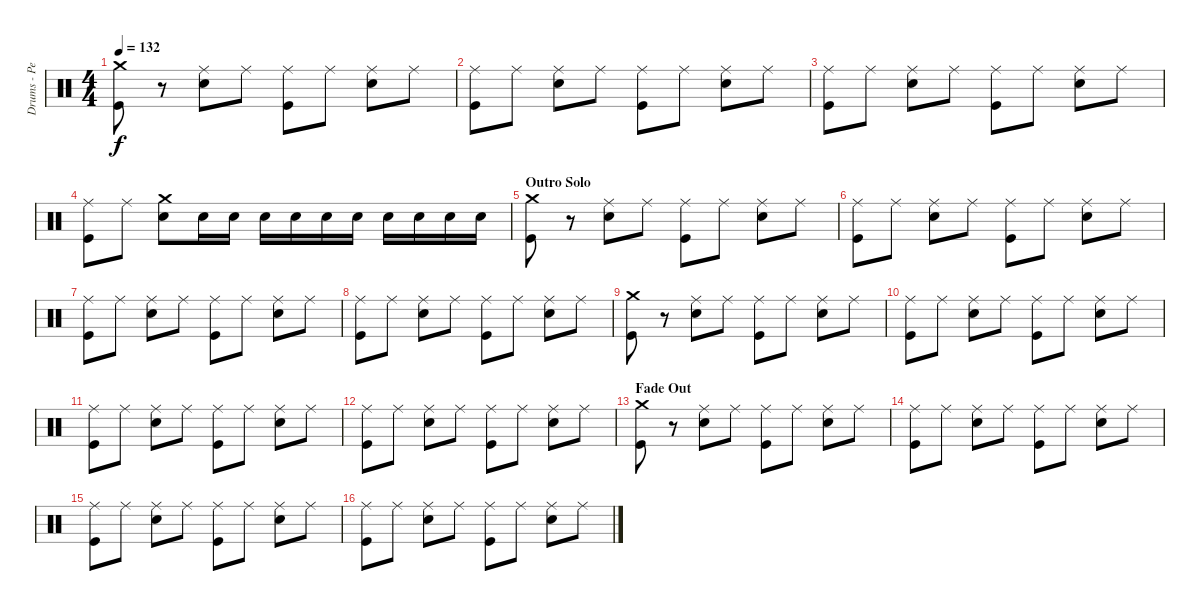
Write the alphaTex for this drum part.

\track ("Drums - Pete Gill" "Drums - Pe") {instrument percussion}
\staff {score}
\articulation defaults
\ts (4 4)
\tempo 132
\clef neutral
\ks c
("Crash medium (hit)" "Kick (hit)").8{dy f} r.8 ("Ride (middle)" "Snare (hit) 2").8 "Ride (middle)".8 ("Ride (middle)" "Kick (hit)").8 "Ride (middle)".8 ("Ride (middle)" "Snare (hit) 2").8 "Ride (middle)".8 |
("Ride (middle)" "Kick (hit)").8 "Ride (middle)".8 ("Ride (middle)" "Snare (hit) 2").8 "Ride (middle)".8 ("Ride (middle)" "Kick (hit)").8 "Ride (middle)".8 ("Ride (middle)" "Snare (hit) 2").8 "Ride (middle)".8 |
("Ride (middle)" "Kick (hit)").8 "Ride (middle)".8 ("Ride (middle)" "Snare (hit) 2").8 "Ride (middle)".8 ("Ride (middle)" "Kick (hit)").8 "Ride (middle)".8 ("Ride (middle)" "Snare (hit) 2").8 "Ride (middle)".8 |
("Ride (middle)" "Kick (hit)").8 "Ride (middle)".8 ("Crash medium (hit)" "Snare (hit) 2").8 "Snare (hit) 2".16 "Snare (hit) 2".16 "Snare (hit) 2".16 "Snare (hit) 2".16 "Snare (hit) 2".16 "Snare (hit) 2".16 "Snare (hit) 2".16 "Snare (hit) 2".16 "Snare (hit) 2".16 "Snare (hit) 2".16 |
\section ("" "Outro Solo")
("Crash medium (hit)" "Kick (hit)").8 r.8 ("Ride (middle)" "Snare (hit) 2").8 "Ride (middle)".8 ("Ride (middle)" "Kick (hit)").8 "Ride (middle)".8 ("Ride (middle)" "Snare (hit) 2").8 "Ride (middle)".8 |
("Ride (middle)" "Kick (hit)").8 "Ride (middle)".8 ("Ride (middle)" "Snare (hit) 2").8 "Ride (middle)".8 ("Ride (middle)" "Kick (hit)").8 "Ride (middle)".8 ("Ride (middle)" "Snare (hit) 2").8 "Ride (middle)".8 |
("Ride (middle)" "Kick (hit)").8 "Ride (middle)".8 ("Ride (middle)" "Snare (hit) 2").8 "Ride (middle)".8 ("Ride (middle)" "Kick (hit)").8 "Ride (middle)".8 ("Ride (middle)" "Snare (hit) 2").8 "Ride (middle)".8 |
("Ride (middle)" "Kick (hit)").8 "Ride (middle)".8 ("Ride (middle)" "Snare (hit) 2").8 "Ride (middle)".8 ("Ride (middle)" "Kick (hit)").8 "Ride (middle)".8 ("Ride (middle)" "Snare (hit) 2").8 "Ride (middle)".8 |
("Crash medium (hit)" "Kick (hit)").8 r.8 ("Ride (middle)" "Snare (hit) 2").8 "Ride (middle)".8 ("Ride (middle)" "Kick (hit)").8 "Ride (middle)".8 ("Ride (middle)" "Snare (hit) 2").8 "Ride (middle)".8 |
("Ride (middle)" "Kick (hit)").8 "Ride (middle)".8 ("Ride (middle)" "Snare (hit) 2").8 "Ride (middle)".8 ("Ride (middle)" "Kick (hit)").8 "Ride (middle)".8 ("Ride (middle)" "Snare (hit) 2").8 "Ride (middle)".8 |
("Ride (middle)" "Kick (hit)").8 "Ride (middle)".8 ("Ride (middle)" "Snare (hit) 2").8 "Ride (middle)".8 ("Ride (middle)" "Kick (hit)").8 "Ride (middle)".8 ("Ride (middle)" "Snare (hit) 2").8 "Ride (middle)".8 |
("Ride (middle)" "Kick (hit)").8 "Ride (middle)".8 ("Ride (middle)" "Snare (hit) 2").8 "Ride (middle)".8 ("Ride (middle)" "Kick (hit)").8 "Ride (middle)".8 ("Ride (middle)" "Snare (hit) 2").8 "Ride (middle)".8 |
\section ("" "Fade Out")
("Crash medium (hit)" "Kick (hit)").8 r.8 ("Ride (middle)" "Snare (hit) 2").8 "Ride (middle)".8 ("Ride (middle)" "Kick (hit)").8 "Ride (middle)".8 ("Ride (middle)" "Snare (hit) 2").8 "Ride (middle)".8 |
("Ride (middle)" "Kick (hit)").8 "Ride (middle)".8 ("Ride (middle)" "Snare (hit) 2").8 "Ride (middle)".8 ("Ride (middle)" "Kick (hit)").8 "Ride (middle)".8 ("Ride (middle)" "Snare (hit) 2").8 "Ride (middle)".8 |
("Ride (middle)" "Kick (hit)").8 "Ride (middle)".8 ("Ride (middle)" "Snare (hit) 2").8 "Ride (middle)".8 ("Ride (middle)" "Kick (hit)").8 "Ride (middle)".8 ("Ride (middle)" "Snare (hit) 2").8 "Ride (middle)".8 |
("Ride (middle)" "Kick (hit)").8 "Ride (middle)".8 ("Ride (middle)" "Snare (hit) 2").8 "Ride (middle)".8 ("Ride (middle)" "Kick (hit)").8 "Ride (middle)".8 ("Ride (middle)" "Snare (hit) 2").8 "Ride (middle)".8
